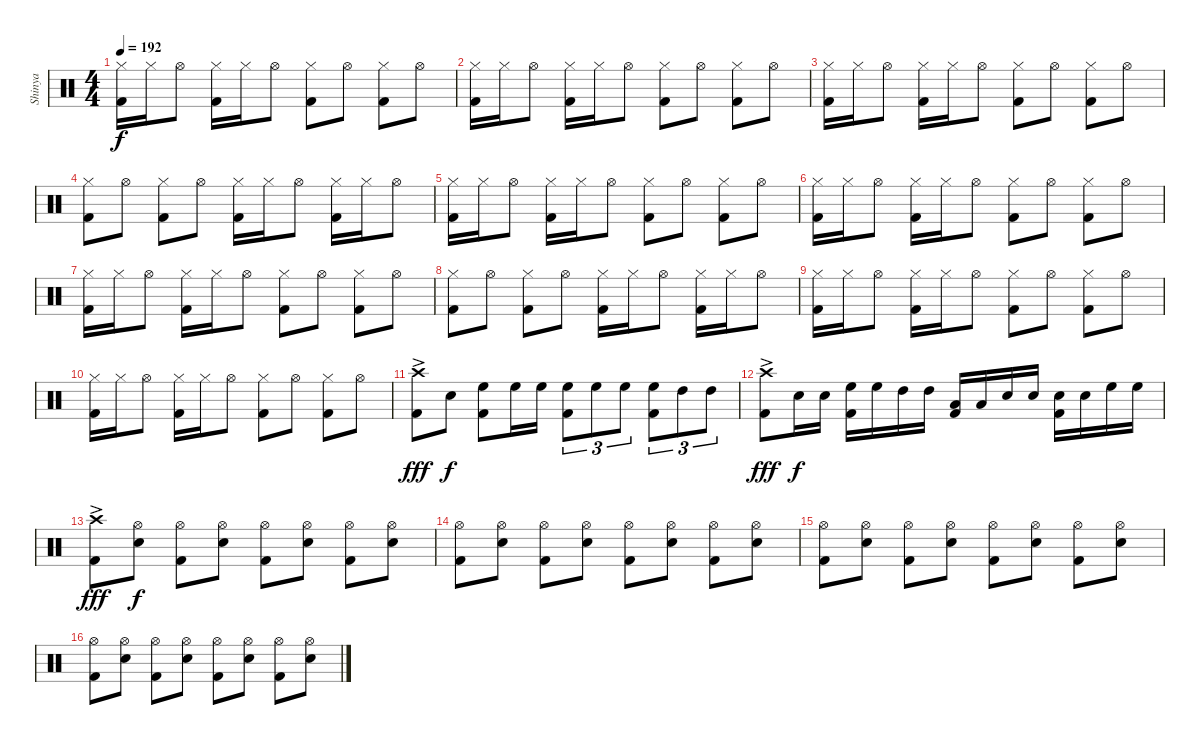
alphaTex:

\track ("Shinya" "Shinya") {instrument percussion}
\staff {score}
\articulation defaults
\ts (4 4)
\tempo 192
\clef neutral
\ks c
("Hi-Hat (closed)" "Kick (hit) 2").16{dy f} "Hi-Hat (closed)".16 "Hi-Hat (open)".8 ("Hi-Hat (closed)" "Kick (hit) 2").16 "Hi-Hat (closed)".16 "Hi-Hat (open)".8 ("Hi-Hat (closed)" "Kick (hit) 2").8 "Hi-Hat (open)".8 ("Hi-Hat (closed)" "Kick (hit) 2").8 "Hi-Hat (open)".8 |
("Hi-Hat (closed)" "Kick (hit) 2").16 "Hi-Hat (closed)".16 "Hi-Hat (open)".8 ("Hi-Hat (closed)" "Kick (hit) 2").16 "Hi-Hat (closed)".16 "Hi-Hat (open)".8 ("Hi-Hat (closed)" "Kick (hit) 2").8 "Hi-Hat (open)".8 ("Hi-Hat (closed)" "Kick (hit) 2").8 "Hi-Hat (open)".8 |
("Hi-Hat (closed)" "Kick (hit) 2").16 "Hi-Hat (closed)".16 "Hi-Hat (open)".8 ("Hi-Hat (closed)" "Kick (hit) 2").16 "Hi-Hat (closed)".16 "Hi-Hat (open)".8 ("Hi-Hat (closed)" "Kick (hit) 2").8 "Hi-Hat (open)".8 ("Hi-Hat (closed)" "Kick (hit) 2").8 "Hi-Hat (open)".8 |
("Hi-Hat (closed)" "Kick (hit) 2").8 "Hi-Hat (open)".8 ("Hi-Hat (closed)" "Kick (hit) 2").8 "Hi-Hat (open)".8 ("Hi-Hat (closed)" "Kick (hit) 2").16 "Hi-Hat (closed)".16 "Hi-Hat (open)".8 ("Hi-Hat (closed)" "Kick (hit) 2").16 "Hi-Hat (closed)".16 "Hi-Hat (open)".8 |
("Hi-Hat (closed)" "Kick (hit) 2").16 "Hi-Hat (closed)".16 "Hi-Hat (open)".8 ("Hi-Hat (closed)" "Kick (hit) 2").16 "Hi-Hat (closed)".16 "Hi-Hat (open)".8 ("Hi-Hat (closed)" "Kick (hit) 2").8 "Hi-Hat (open)".8 ("Hi-Hat (closed)" "Kick (hit) 2").8 "Hi-Hat (open)".8 |
("Hi-Hat (closed)" "Kick (hit) 2").16 "Hi-Hat (closed)".16 "Hi-Hat (open)".8 ("Hi-Hat (closed)" "Kick (hit) 2").16 "Hi-Hat (closed)".16 "Hi-Hat (open)".8 ("Hi-Hat (closed)" "Kick (hit) 2").8 "Hi-Hat (open)".8 ("Hi-Hat (closed)" "Kick (hit) 2").8 "Hi-Hat (open)".8 |
("Hi-Hat (closed)" "Kick (hit) 2").16 "Hi-Hat (closed)".16 "Hi-Hat (open)".8 ("Hi-Hat (closed)" "Kick (hit) 2").16 "Hi-Hat (closed)".16 "Hi-Hat (open)".8 ("Hi-Hat (closed)" "Kick (hit) 2").8 "Hi-Hat (open)".8 ("Hi-Hat (closed)" "Kick (hit) 2").8 "Hi-Hat (open)".8 |
("Hi-Hat (closed)" "Kick (hit) 2").8 "Hi-Hat (open)".8 ("Hi-Hat (closed)" "Kick (hit) 2").8 "Hi-Hat (open)".8 ("Hi-Hat (closed)" "Kick (hit) 2").16 "Hi-Hat (closed)".16 "Hi-Hat (open)".8 ("Hi-Hat (closed)" "Kick (hit) 2").16 "Hi-Hat (closed)".16 "Hi-Hat (open)".8 |
("Hi-Hat (closed)" "Kick (hit) 2").16 "Hi-Hat (closed)".16 "Hi-Hat (open)".8 ("Hi-Hat (closed)" "Kick (hit) 2").16 "Hi-Hat (closed)".16 "Hi-Hat (open)".8 ("Hi-Hat (closed)" "Kick (hit) 2").8 "Hi-Hat (open)".8 ("Hi-Hat (closed)" "Kick (hit) 2").8 "Hi-Hat (open)".8 |
("Hi-Hat (closed)" "Kick (hit) 2").16 "Hi-Hat (closed)".16 "Hi-Hat (open)".8 ("Hi-Hat (closed)" "Kick (hit) 2").16 "Hi-Hat (closed)".16 "Hi-Hat (open)".8 ("Hi-Hat (closed)" "Kick (hit) 2").8 "Hi-Hat (open)".8 ("Hi-Hat (closed)" "Kick (hit) 2").8 "Hi-Hat (open)".8 |
("Crash high (hit)"{ac} "Kick (hit) 2").8{dy fff} "Snare (hit) 2".8{dy f} ("High Floor Tom (hit)" "Kick (hit) 2").8 "High Floor Tom (hit)".16 "High Floor Tom (hit)".16 ("High Floor Tom (hit)" "Kick (hit) 2").8{tu (3 2)} "High Floor Tom (hit)".8{tu (3 2)} "High Floor Tom (hit)".8{tu (3 2)} ("High Floor Tom (hit)" "Kick (hit) 2").8{tu (3 2)} "High Tom (hit)".8{tu (3 2)} "High Tom (hit)".8{tu (3 2)} |
("Crash high (hit)"{ac} "Kick (hit) 2").8{dy fff} "Snare (hit) 2".16{dy f} "Snare (hit) 2".16 ("High Floor Tom (hit)" "Kick (hit) 2").16 "High Floor Tom (hit)".16 "High Tom (hit)".16 "High Tom (hit)".16 ("Low Tom (hit)" "Kick (hit) 2").16 "Low Tom (hit)".16 "Snare (hit) 2".16 "Snare (hit) 2".16 ("Snare (hit) 2" "Kick (hit) 2").16 "Snare (hit) 2".16 "High Floor Tom (hit)".16 "High Floor Tom (hit)".16 |
("Crash high (hit)"{ac} "Kick (hit) 2").8{dy fff} ("Hi-Hat (open)" "Snare (hit) 2").8{dy f} ("Hi-Hat (open)" "Kick (hit) 2").8 ("Hi-Hat (open)" "Snare (hit) 2").8 ("Hi-Hat (open)" "Kick (hit) 2").8 ("Hi-Hat (open)" "Snare (hit) 2").8 ("Hi-Hat (open)" "Kick (hit) 2").8 ("Hi-Hat (open)" "Snare (hit) 2").8 |
("Hi-Hat (open)" "Kick (hit) 2").8 ("Hi-Hat (open)" "Snare (hit) 2").8 ("Hi-Hat (open)" "Kick (hit) 2").8 ("Hi-Hat (open)" "Snare (hit) 2").8 ("Hi-Hat (open)" "Kick (hit) 2").8 ("Hi-Hat (open)" "Snare (hit) 2").8 ("Hi-Hat (open)" "Kick (hit) 2").8 ("Hi-Hat (open)" "Snare (hit) 2").8 |
("Hi-Hat (open)" "Kick (hit) 2").8 ("Hi-Hat (open)" "Snare (hit) 2").8 ("Hi-Hat (open)" "Kick (hit) 2").8 ("Hi-Hat (open)" "Snare (hit) 2").8 ("Hi-Hat (open)" "Kick (hit) 2").8 ("Hi-Hat (open)" "Snare (hit) 2").8 ("Hi-Hat (open)" "Kick (hit) 2").8 ("Hi-Hat (open)" "Snare (hit) 2").8 |
("Hi-Hat (open)" "Kick (hit) 2").8 ("Hi-Hat (open)" "Snare (hit) 2").8 ("Hi-Hat (open)" "Kick (hit) 2").8 ("Hi-Hat (open)" "Snare (hit) 2").8 ("Hi-Hat (open)" "Kick (hit) 2").8 ("Hi-Hat (open)" "Snare (hit) 2").8 ("Hi-Hat (open)" "Kick (hit) 2").8 ("Hi-Hat (open)" "Snare (hit) 2").8
